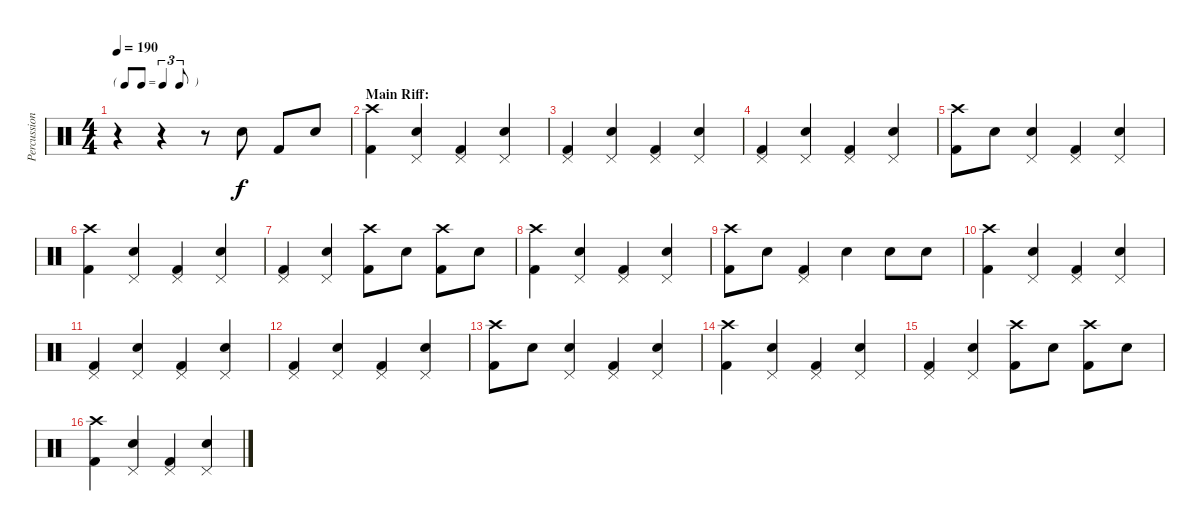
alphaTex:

\track ("Percussion" "Percussion") {instrument percussion}
\staff {score}
\articulation defaults
\ts (4 4)
\tf triplet8th
\tempo 190
\clef neutral
\ks c
r.4{dy f} r.4 r.8 "Electric Snare (hit)".8 "Kick (hit) 2".8 "Electric Snare (hit)".8 |
\section ("" "Main Riff:")
("Crash high (hit)" "Kick (hit) 2").4 ("Pedal Hi-Hat (hit)" "Electric Snare (hit)").4 ("Pedal Hi-Hat (hit)" "Kick (hit) 2").4 ("Pedal Hi-Hat (hit)" "Electric Snare (hit)").4 |
("Pedal Hi-Hat (hit)" "Kick (hit) 2").4 ("Pedal Hi-Hat (hit)" "Electric Snare (hit)").4 ("Pedal Hi-Hat (hit)" "Kick (hit) 2").4 ("Pedal Hi-Hat (hit)" "Electric Snare (hit)").4 |
("Pedal Hi-Hat (hit)" "Kick (hit) 2").4 ("Pedal Hi-Hat (hit)" "Electric Snare (hit)").4 ("Pedal Hi-Hat (hit)" "Kick (hit) 2").4 ("Pedal Hi-Hat (hit)" "Electric Snare (hit)").4 |
("Crash high (hit)" "Kick (hit) 2").8 "Electric Snare (hit)".8 ("Pedal Hi-Hat (hit)" "Electric Snare (hit)").4 ("Pedal Hi-Hat (hit)" "Kick (hit) 2").4 ("Pedal Hi-Hat (hit)" "Electric Snare (hit)").4 |
("Crash high (hit)" "Kick (hit) 2").4 ("Pedal Hi-Hat (hit)" "Electric Snare (hit)").4 ("Pedal Hi-Hat (hit)" "Kick (hit) 2").4 ("Pedal Hi-Hat (hit)" "Electric Snare (hit)").4 |
("Pedal Hi-Hat (hit)" "Kick (hit) 2").4 ("Pedal Hi-Hat (hit)" "Electric Snare (hit)").4 ("Crash high (hit)" "Kick (hit) 2").8 "Electric Snare (hit)".8 ("Crash high (hit)" "Kick (hit) 2").8 "Electric Snare (hit)".8 |
("Crash high (hit)" "Kick (hit) 2").4 ("Pedal Hi-Hat (hit)" "Electric Snare (hit)").4 ("Pedal Hi-Hat (hit)" "Kick (hit) 2").4 ("Pedal Hi-Hat (hit)" "Electric Snare (hit)").4 |
("Crash high (hit)" "Kick (hit) 2").8 "Electric Snare (hit)".8 ("Pedal Hi-Hat (hit)" "Kick (hit) 2").4 "Electric Snare (hit)".4 "Electric Snare (hit)".8 "Electric Snare (hit)".8 |
("Crash high (hit)" "Kick (hit) 2").4 ("Pedal Hi-Hat (hit)" "Electric Snare (hit)").4 ("Pedal Hi-Hat (hit)" "Kick (hit) 2").4 ("Pedal Hi-Hat (hit)" "Electric Snare (hit)").4 |
("Pedal Hi-Hat (hit)" "Kick (hit) 2").4 ("Pedal Hi-Hat (hit)" "Electric Snare (hit)").4 ("Pedal Hi-Hat (hit)" "Kick (hit) 2").4 ("Pedal Hi-Hat (hit)" "Electric Snare (hit)").4 |
("Pedal Hi-Hat (hit)" "Kick (hit) 2").4 ("Pedal Hi-Hat (hit)" "Electric Snare (hit)").4 ("Pedal Hi-Hat (hit)" "Kick (hit) 2").4 ("Pedal Hi-Hat (hit)" "Electric Snare (hit)").4 |
("Crash high (hit)" "Kick (hit) 2").8 "Electric Snare (hit)".8 ("Pedal Hi-Hat (hit)" "Electric Snare (hit)").4 ("Pedal Hi-Hat (hit)" "Kick (hit) 2").4 ("Pedal Hi-Hat (hit)" "Electric Snare (hit)").4 |
("Crash high (hit)" "Kick (hit) 2").4 ("Pedal Hi-Hat (hit)" "Electric Snare (hit)").4 ("Pedal Hi-Hat (hit)" "Kick (hit) 2").4 ("Pedal Hi-Hat (hit)" "Electric Snare (hit)").4 |
("Pedal Hi-Hat (hit)" "Kick (hit) 2").4 ("Pedal Hi-Hat (hit)" "Electric Snare (hit)").4 ("Crash high (hit)" "Kick (hit) 2").8 "Electric Snare (hit)".8 ("Crash high (hit)" "Kick (hit) 2").8 "Electric Snare (hit)".8 |
("Crash high (hit)" "Kick (hit) 2").4 ("Pedal Hi-Hat (hit)" "Electric Snare (hit)").4 ("Pedal Hi-Hat (hit)" "Kick (hit) 2").4 ("Pedal Hi-Hat (hit)" "Electric Snare (hit)").4
